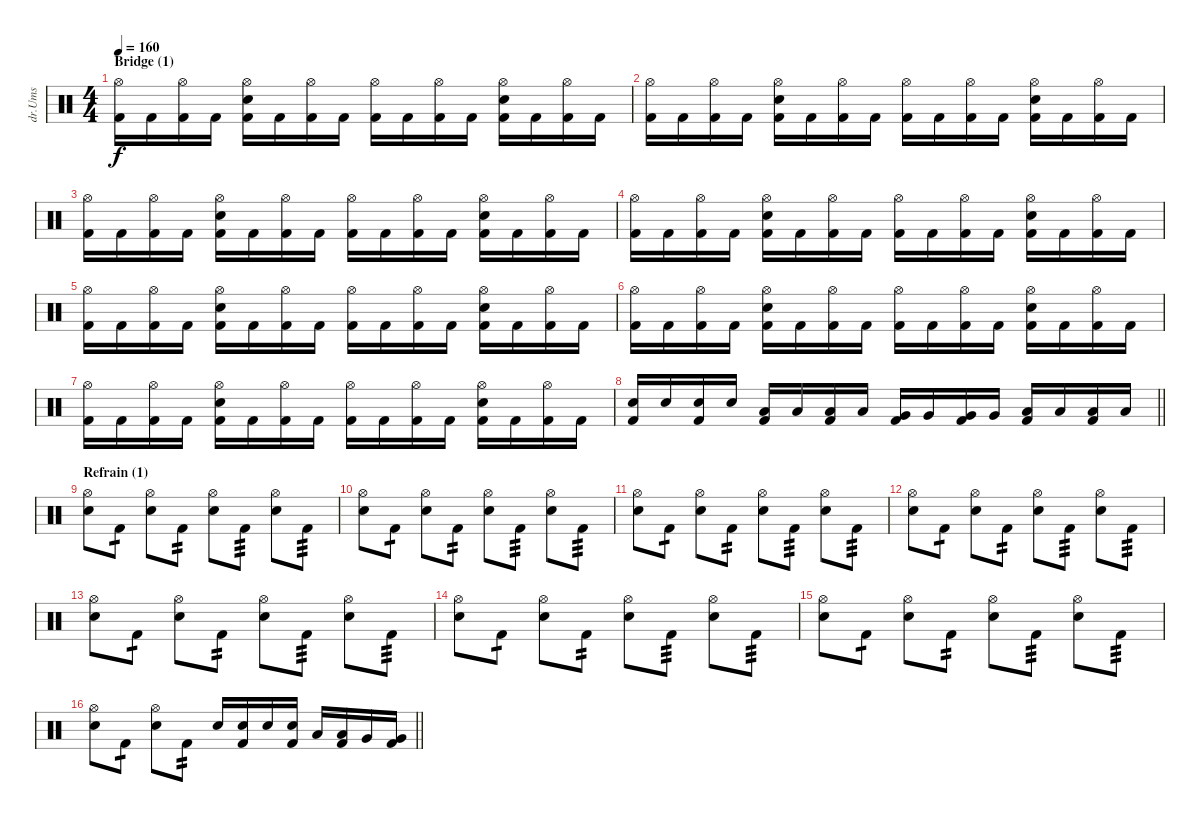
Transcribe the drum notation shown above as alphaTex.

\track ("dr.Ums" "dr.Ums") {instrument percussion}
\staff {score}
\articulation defaults
\ts (4 4)
\section ("" "Bridge (1)")
\tempo 160
\clef neutral
\ks c
("Kick (hit) 2" "Hi-Hat (open)").16{dy f} "Kick (hit) 2".16 ("Kick (hit) 2" "Hi-Hat (open)").16 "Kick (hit) 2".16 ("Kick (hit) 2" "Hi-Hat (open)" "Snare (hit) 2").16 "Kick (hit) 2".16 ("Kick (hit) 2" "Hi-Hat (open)").16 "Kick (hit) 2".16 ("Kick (hit) 2" "Hi-Hat (open)").16 "Kick (hit) 2".16 ("Kick (hit) 2" "Hi-Hat (open)").16 "Kick (hit) 2".16 ("Kick (hit) 2" "Hi-Hat (open)" "Snare (hit) 2").16 "Kick (hit) 2".16 ("Kick (hit) 2" "Hi-Hat (open)").16 "Kick (hit) 2".16 |
("Kick (hit) 2" "Hi-Hat (open)").16 "Kick (hit) 2".16 ("Kick (hit) 2" "Hi-Hat (open)").16 "Kick (hit) 2".16 ("Kick (hit) 2" "Hi-Hat (open)" "Snare (hit) 2").16 "Kick (hit) 2".16 ("Kick (hit) 2" "Hi-Hat (open)").16 "Kick (hit) 2".16 ("Kick (hit) 2" "Hi-Hat (open)").16 "Kick (hit) 2".16 ("Kick (hit) 2" "Hi-Hat (open)").16 "Kick (hit) 2".16 ("Kick (hit) 2" "Hi-Hat (open)" "Snare (hit) 2").16 "Kick (hit) 2".16 ("Kick (hit) 2" "Hi-Hat (open)").16 "Kick (hit) 2".16 |
("Kick (hit) 2" "Hi-Hat (open)").16 "Kick (hit) 2".16 ("Kick (hit) 2" "Hi-Hat (open)").16 "Kick (hit) 2".16 ("Kick (hit) 2" "Hi-Hat (open)" "Snare (hit) 2").16 "Kick (hit) 2".16 ("Kick (hit) 2" "Hi-Hat (open)").16 "Kick (hit) 2".16 ("Kick (hit) 2" "Hi-Hat (open)").16 "Kick (hit) 2".16 ("Kick (hit) 2" "Hi-Hat (open)").16 "Kick (hit) 2".16 ("Kick (hit) 2" "Hi-Hat (open)" "Snare (hit) 2").16 "Kick (hit) 2".16 ("Kick (hit) 2" "Hi-Hat (open)").16 "Kick (hit) 2".16 |
("Kick (hit) 2" "Hi-Hat (open)").16 "Kick (hit) 2".16 ("Kick (hit) 2" "Hi-Hat (open)").16 "Kick (hit) 2".16 ("Kick (hit) 2" "Hi-Hat (open)" "Snare (hit) 2").16 "Kick (hit) 2".16 ("Kick (hit) 2" "Hi-Hat (open)").16 "Kick (hit) 2".16 ("Kick (hit) 2" "Hi-Hat (open)").16 "Kick (hit) 2".16 ("Kick (hit) 2" "Hi-Hat (open)").16 "Kick (hit) 2".16 ("Kick (hit) 2" "Hi-Hat (open)" "Snare (hit) 2").16 "Kick (hit) 2".16 ("Kick (hit) 2" "Hi-Hat (open)").16 "Kick (hit) 2".16 |
("Kick (hit) 2" "Hi-Hat (open)").16 "Kick (hit) 2".16 ("Kick (hit) 2" "Hi-Hat (open)").16 "Kick (hit) 2".16 ("Kick (hit) 2" "Hi-Hat (open)" "Snare (hit) 2").16 "Kick (hit) 2".16 ("Kick (hit) 2" "Hi-Hat (open)").16 "Kick (hit) 2".16 ("Kick (hit) 2" "Hi-Hat (open)").16 "Kick (hit) 2".16 ("Kick (hit) 2" "Hi-Hat (open)").16 "Kick (hit) 2".16 ("Kick (hit) 2" "Hi-Hat (open)" "Snare (hit) 2").16 "Kick (hit) 2".16 ("Kick (hit) 2" "Hi-Hat (open)").16 "Kick (hit) 2".16 |
("Kick (hit) 2" "Hi-Hat (open)").16 "Kick (hit) 2".16 ("Kick (hit) 2" "Hi-Hat (open)").16 "Kick (hit) 2".16 ("Kick (hit) 2" "Hi-Hat (open)" "Snare (hit) 2").16 "Kick (hit) 2".16 ("Kick (hit) 2" "Hi-Hat (open)").16 "Kick (hit) 2".16 ("Kick (hit) 2" "Hi-Hat (open)").16 "Kick (hit) 2".16 ("Kick (hit) 2" "Hi-Hat (open)").16 "Kick (hit) 2".16 ("Kick (hit) 2" "Hi-Hat (open)" "Snare (hit) 2").16 "Kick (hit) 2".16 ("Kick (hit) 2" "Hi-Hat (open)").16 "Kick (hit) 2".16 |
("Kick (hit) 2" "Hi-Hat (open)").16 "Kick (hit) 2".16 ("Kick (hit) 2" "Hi-Hat (open)").16 "Kick (hit) 2".16 ("Kick (hit) 2" "Hi-Hat (open)" "Snare (hit) 2").16 "Kick (hit) 2".16 ("Kick (hit) 2" "Hi-Hat (open)").16 "Kick (hit) 2".16 ("Kick (hit) 2" "Hi-Hat (open)").16 "Kick (hit) 2".16 ("Kick (hit) 2" "Hi-Hat (open)").16 "Kick (hit) 2".16 ("Kick (hit) 2" "Hi-Hat (open)" "Snare (hit) 2").16 "Kick (hit) 2".16 ("Kick (hit) 2" "Hi-Hat (open)").16 "Kick (hit) 2".16 |
\barLineRight lightlight
("Snare (hit) 2" "Kick (hit) 2").16 "Snare (hit) 2".16 ("Snare (hit) 2" "Kick (hit) 2").16 "Snare (hit) 2".16 ("Low Tom (hit)" "Kick (hit) 2").16 "Low Tom (hit)".16 ("Low Tom (hit)" "Kick (hit) 2").16 "Low Tom (hit)".16 ("Very Low Tom (hit)" "Kick (hit) 2").16 "Very Low Tom (hit)".16 ("Very Low Tom (hit)" "Kick (hit) 2").16 "Very Low Tom (hit)".16 ("Low Floor Tom (hit)" "Kick (hit) 2").16 "Low Floor Tom (hit)".16 ("Low Floor Tom (hit)" "Kick (hit) 2").16 "Low Floor Tom (hit)".16 |
\section ("" "Refrain (1)")
("Snare (hit) 2" "Hi-Hat (open)").8 "Kick (hit) 2".8{tp 1} ("Snare (hit) 2" "Hi-Hat (open)").8 "Kick (hit) 2".8{tp 2} ("Snare (hit) 2" "Hi-Hat (open)").8 "Kick (hit) 2".8{tp 3} ("Snare (hit) 2" "Hi-Hat (open)").8 "Kick (hit) 2".8{tp 3} |
("Snare (hit) 2" "Hi-Hat (open)").8 "Kick (hit) 2".8{tp 1} ("Snare (hit) 2" "Hi-Hat (open)").8 "Kick (hit) 2".8{tp 2} ("Snare (hit) 2" "Hi-Hat (open)").8 "Kick (hit) 2".8{tp 3} ("Snare (hit) 2" "Hi-Hat (open)").8 "Kick (hit) 2".8{tp 3} |
("Snare (hit) 2" "Hi-Hat (open)").8 "Kick (hit) 2".8{tp 1} ("Snare (hit) 2" "Hi-Hat (open)").8 "Kick (hit) 2".8{tp 2} ("Snare (hit) 2" "Hi-Hat (open)").8 "Kick (hit) 2".8{tp 3} ("Snare (hit) 2" "Hi-Hat (open)").8 "Kick (hit) 2".8{tp 3} |
("Snare (hit) 2" "Hi-Hat (open)").8 "Kick (hit) 2".8{tp 1} ("Snare (hit) 2" "Hi-Hat (open)").8 "Kick (hit) 2".8{tp 2} ("Snare (hit) 2" "Hi-Hat (open)").8 "Kick (hit) 2".8{tp 3} ("Snare (hit) 2" "Hi-Hat (open)").8 "Kick (hit) 2".8{tp 3} |
("Snare (hit) 2" "Hi-Hat (open)").8 "Kick (hit) 2".8{tp 1} ("Snare (hit) 2" "Hi-Hat (open)").8 "Kick (hit) 2".8{tp 2} ("Snare (hit) 2" "Hi-Hat (open)").8 "Kick (hit) 2".8{tp 3} ("Snare (hit) 2" "Hi-Hat (open)").8 "Kick (hit) 2".8{tp 3} |
("Snare (hit) 2" "Hi-Hat (open)").8 "Kick (hit) 2".8{tp 1} ("Snare (hit) 2" "Hi-Hat (open)").8 "Kick (hit) 2".8{tp 2} ("Snare (hit) 2" "Hi-Hat (open)").8 "Kick (hit) 2".8{tp 3} ("Snare (hit) 2" "Hi-Hat (open)").8 "Kick (hit) 2".8{tp 3} |
("Snare (hit) 2" "Hi-Hat (open)").8 "Kick (hit) 2".8{tp 1} ("Snare (hit) 2" "Hi-Hat (open)").8 "Kick (hit) 2".8{tp 2} ("Snare (hit) 2" "Hi-Hat (open)").8 "Kick (hit) 2".8{tp 3} ("Snare (hit) 2" "Hi-Hat (open)").8 "Kick (hit) 2".8{tp 3} |
\barLineRight lightlight
("Snare (hit) 2" "Hi-Hat (open)").8 "Kick (hit) 2".8{tp 1} ("Snare (hit) 2" "Hi-Hat (open)").8 "Kick (hit) 2".8{tp 2} "Snare (hit) 2".16 ("Snare (hit) 2" "Kick (hit) 2").16 "Snare (hit) 2".16 ("Snare (hit) 2" "Kick (hit) 2").16 "Low Tom (hit)".16 ("Low Tom (hit)" "Kick (hit) 2").16 "Very Low Tom (hit)".16 ("Very Low Tom (hit)" "Kick (hit) 2").16
